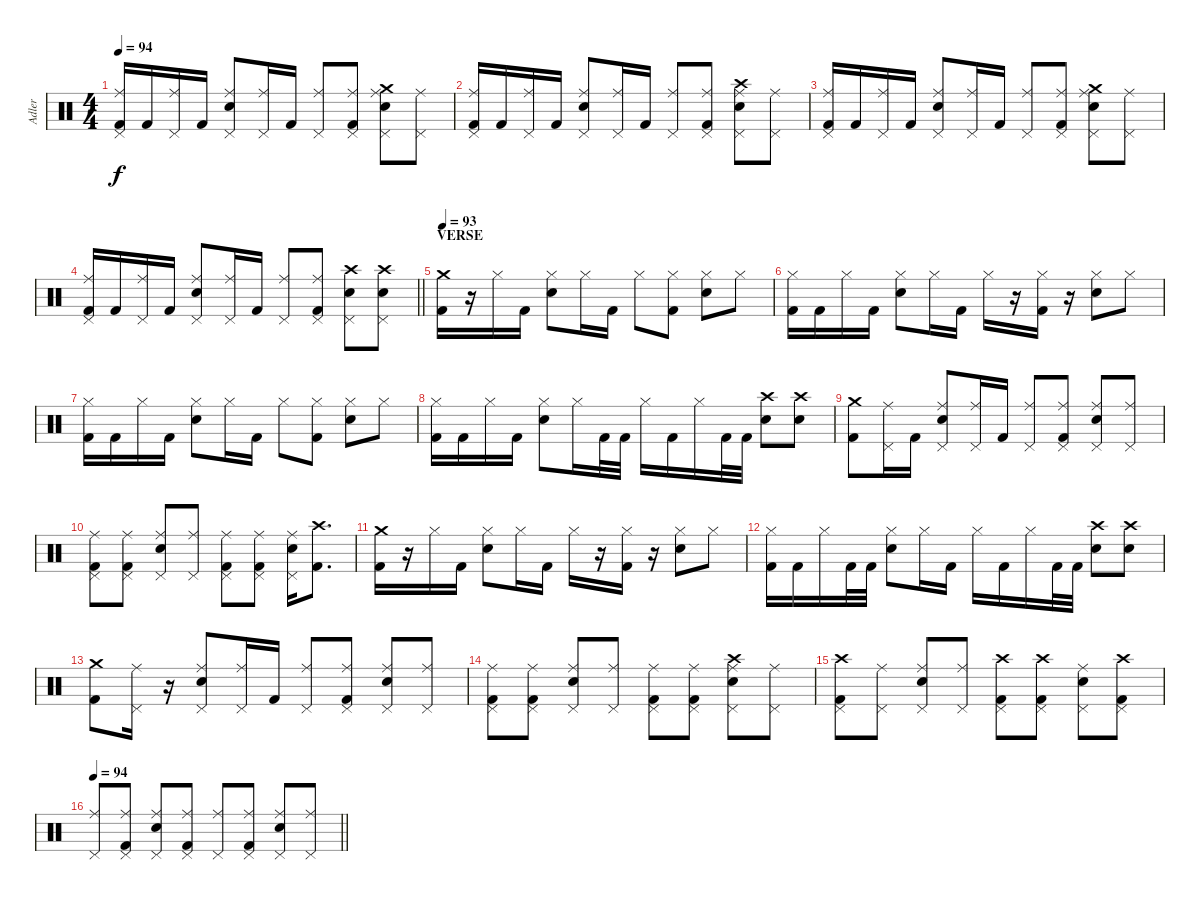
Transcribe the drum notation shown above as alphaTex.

\track ("Adler" "Adler") {instrument percussion}
\staff {score}
\articulation defaults
\ts (4 4)
\tempo 94
\clef neutral
\ks c
("Kick (hit) 2" "Pedal Hi-Hat (hit)" "Ride (middle)").16{dy f} "Kick (hit) 2".16 ("Pedal Hi-Hat (hit)" "Ride (middle)").16 "Kick (hit) 2".16 ("Snare (hit) 2" "Pedal Hi-Hat (hit)" "Ride (middle)").8 ("Pedal Hi-Hat (hit)" "Ride (middle)").16 "Kick (hit) 2".16 ("Pedal Hi-Hat (hit)" "Ride (middle)").8 ("Kick (hit) 2" "Pedal Hi-Hat (hit)" "Ride (middle)").8 ("Crash medium (hit)" "Snare (hit) 2" "Pedal Hi-Hat (hit)" "Ride (middle)").8 ("Pedal Hi-Hat (hit)" "Ride (middle)").8 |
("Kick (hit) 2" "Pedal Hi-Hat (hit)" "Ride (middle)").16 "Kick (hit) 2".16 ("Pedal Hi-Hat (hit)" "Ride (middle)").16 "Kick (hit) 2".16 ("Snare (hit) 2" "Pedal Hi-Hat (hit)" "Ride (middle)").8 ("Pedal Hi-Hat (hit)" "Ride (middle)").16 "Kick (hit) 2".16 ("Pedal Hi-Hat (hit)" "Ride (middle)").8 ("Kick (hit) 2" "Pedal Hi-Hat (hit)" "Ride (middle)").8 ("Crash high (hit)" "Snare (hit) 2" "Pedal Hi-Hat (hit)" "Ride (middle)").8 ("Pedal Hi-Hat (hit)" "Ride (middle)").8 |
("Kick (hit) 2" "Pedal Hi-Hat (hit)" "Ride (middle)").16 "Kick (hit) 2".16 ("Pedal Hi-Hat (hit)" "Ride (middle)").16 "Kick (hit) 2".16 ("Snare (hit) 2" "Pedal Hi-Hat (hit)" "Ride (middle)").8 ("Pedal Hi-Hat (hit)" "Ride (middle)").16 "Kick (hit) 2".16 ("Pedal Hi-Hat (hit)" "Ride (middle)").8 ("Kick (hit) 2" "Pedal Hi-Hat (hit)" "Ride (middle)").8 ("Crash medium (hit)" "Snare (hit) 2" "Pedal Hi-Hat (hit)" "Ride (middle)").8 ("Pedal Hi-Hat (hit)" "Ride (middle)").8 |
\barLineRight lightlight
("Kick (hit) 2" "Pedal Hi-Hat (hit)" "Ride (middle)").16 "Kick (hit) 2".16 ("Pedal Hi-Hat (hit)" "Ride (middle)").16 "Kick (hit) 2".16 ("Snare (hit) 2" "Pedal Hi-Hat (hit)" "Ride (middle)").8 ("Pedal Hi-Hat (hit)" "Ride (middle)").16 "Kick (hit) 2".16 ("Pedal Hi-Hat (hit)" "Ride (middle)").8 ("Kick (hit) 2" "Pedal Hi-Hat (hit)" "Ride (middle)").8 ("Crash high (hit)" "Snare (hit) 2" "Pedal Hi-Hat (hit)").8 ("Crash high (hit)" "Snare (hit) 2" "Pedal Hi-Hat (hit)").8 |
\section ("" "VERSE")
\tempo 93
("Crash medium (hit)" "Kick (hit) 2").16 r.16 "Hi-Hat (closed)".16 "Kick (hit) 2".16 ("Hi-Hat (closed)" "Snare (hit) 2").8 "Hi-Hat (closed)".16 "Kick (hit) 2".16 "Hi-Hat (closed)".8 ("Hi-Hat (closed)" "Kick (hit) 2").8 ("Hi-Hat (closed)" "Snare (hit) 2").8 "Hi-Hat (closed)".8 |
("Hi-Hat (closed)" "Kick (hit) 2").16 "Kick (hit) 2".16 "Hi-Hat (closed)".16 "Kick (hit) 2".16 ("Hi-Hat (closed)" "Snare (hit) 2").8 "Hi-Hat (closed)".16 "Kick (hit) 2".16 "Hi-Hat (closed)".16 r.16 ("Hi-Hat (closed)" "Kick (hit) 2").16 r.16 ("Hi-Hat (closed)" "Snare (hit) 2").8 "Hi-Hat (closed)".8 |
("Hi-Hat (closed)" "Kick (hit) 2").16 "Kick (hit) 2".16 "Hi-Hat (closed)".16 "Kick (hit) 2".16 ("Hi-Hat (closed)" "Snare (hit) 2").8 "Hi-Hat (closed)".16 "Kick (hit) 2".16 "Hi-Hat (closed)".8 ("Hi-Hat (closed)" "Kick (hit) 2").8 ("Hi-Hat (closed)" "Snare (hit) 2").8 "Hi-Hat (closed)".8 |
("Hi-Hat (closed)" "Kick (hit) 2").16 "Kick (hit) 2".16 "Hi-Hat (closed)".16 "Kick (hit) 2".16 ("Hi-Hat (closed)" "Snare (hit) 2").8 "Hi-Hat (closed)".16 "Kick (hit) 2".32 "Kick (hit) 2".32 "Hi-Hat (closed)".16 "Kick (hit) 2".16 "Hi-Hat (closed)".16 "Kick (hit) 2".32 "Kick (hit) 2".32 ("Crash high (hit)" "Snare (hit) 2").8 ("Crash high (hit)" "Snare (hit) 2").8 |
("Crash medium (hit)" "Kick (hit) 2").8 ("Pedal Hi-Hat (hit)" "Ride (middle)").16 "Kick (hit) 2".16 ("Snare (hit) 2" "Pedal Hi-Hat (hit)" "Ride (middle)").8 ("Pedal Hi-Hat (hit)" "Ride (middle)").16 "Kick (hit) 2".16 ("Pedal Hi-Hat (hit)" "Ride (middle)").8 ("Kick (hit) 2" "Pedal Hi-Hat (hit)" "Ride (middle)").8 ("Snare (hit) 2" "Pedal Hi-Hat (hit)" "Ride (middle)").8 ("Pedal Hi-Hat (hit)" "Ride (middle)").8 |
("Kick (hit) 2" "Pedal Hi-Hat (hit)" "Ride (middle)").8 ("Kick (hit) 2" "Pedal Hi-Hat (hit)" "Ride (middle)").8 ("Snare (hit) 2" "Pedal Hi-Hat (hit)" "Ride (middle)").8 ("Pedal Hi-Hat (hit)" "Ride (middle)").8 ("Kick (hit) 2" "Pedal Hi-Hat (hit)" "Ride (middle)").8 ("Kick (hit) 2" "Pedal Hi-Hat (hit)" "Ride (middle)").8 ("Snare (hit) 2" "Pedal Hi-Hat (hit)" "Ride (middle)").16 ("Crash high (hit)" "Kick (hit) 2").8{d} |
("Crash medium (hit)" "Kick (hit) 2").16 r.16 "Hi-Hat (closed)".16 "Kick (hit) 2".16 ("Hi-Hat (closed)" "Snare (hit) 2").8 "Hi-Hat (closed)".16 "Kick (hit) 2".16 "Hi-Hat (closed)".16 r.16 ("Hi-Hat (closed)" "Kick (hit) 2").16 r.16 ("Hi-Hat (closed)" "Snare (hit) 2").8 "Hi-Hat (closed)".8 |
("Hi-Hat (closed)" "Kick (hit) 2").16 "Kick (hit) 2".16 "Hi-Hat (closed)".16 "Kick (hit) 2".32 "Kick (hit) 2".32 ("Hi-Hat (closed)" "Snare (hit) 2").8 "Hi-Hat (closed)".16 "Kick (hit) 2".16 "Hi-Hat (closed)".16 "Kick (hit) 2".16 "Hi-Hat (closed)".16 "Kick (hit) 2".32 "Kick (hit) 2".32 ("Crash high (hit)" "Snare (hit) 2").8 ("Crash high (hit)" "Snare (hit) 2").8 |
("Crash medium (hit)" "Kick (hit) 2").8 ("Pedal Hi-Hat (hit)" "Ride (middle)").16 r.16 ("Snare (hit) 2" "Pedal Hi-Hat (hit)" "Ride (middle)").8 ("Pedal Hi-Hat (hit)" "Ride (middle)").16 "Kick (hit) 2".16 ("Pedal Hi-Hat (hit)" "Ride (middle)").8 ("Kick (hit) 2" "Pedal Hi-Hat (hit)" "Ride (middle)").8 ("Snare (hit) 2" "Pedal Hi-Hat (hit)" "Ride (middle)").8 ("Pedal Hi-Hat (hit)" "Ride (middle)").8 |
("Kick (hit) 2" "Pedal Hi-Hat (hit)" "Ride (middle)").8 ("Kick (hit) 2" "Pedal Hi-Hat (hit)" "Ride (middle)").8 ("Snare (hit) 2" "Pedal Hi-Hat (hit)" "Ride (middle)").8 ("Pedal Hi-Hat (hit)" "Ride (middle)").8 ("Kick (hit) 2" "Pedal Hi-Hat (hit)" "Ride (middle)").8 ("Kick (hit) 2" "Pedal Hi-Hat (hit)" "Ride (middle)").8 ("Crash high (hit)" "Snare (hit) 2" "Pedal Hi-Hat (hit)" "Ride (middle)").8 ("Pedal Hi-Hat (hit)" "Ride (middle)").8 |
("Crash high (hit)" "Kick (hit) 2" "Pedal Hi-Hat (hit)").8 ("Pedal Hi-Hat (hit)" "Ride (middle)").8 ("Snare (hit) 2" "Pedal Hi-Hat (hit)" "Ride (middle)").8 ("Pedal Hi-Hat (hit)" "Ride (middle)").8 ("Crash high (hit)" "Kick (hit) 2" "Pedal Hi-Hat (hit)").8 ("Crash high (hit)" "Kick (hit) 2" "Pedal Hi-Hat (hit)").8 ("Snare (hit) 2" "Pedal Hi-Hat (hit)" "Ride (middle)").8 ("Crash high (hit)" "Kick (hit) 2" "Pedal Hi-Hat (hit)").8 |
\tempo 94
\barLineRight lightlight
("Pedal Hi-Hat (hit)" "Ride (middle)").8 ("Kick (hit) 2" "Pedal Hi-Hat (hit)" "Ride (middle)").8 ("Snare (hit) 2" "Pedal Hi-Hat (hit)" "Ride (middle)").8 ("Kick (hit) 2" "Pedal Hi-Hat (hit)" "Ride (middle)").8 ("Pedal Hi-Hat (hit)" "Ride (middle)").8 ("Kick (hit) 2" "Pedal Hi-Hat (hit)" "Ride (middle)").8 ("Snare (hit) 2" "Pedal Hi-Hat (hit)" "Ride (middle)").8 ("Pedal Hi-Hat (hit)" "Ride (middle)").8
